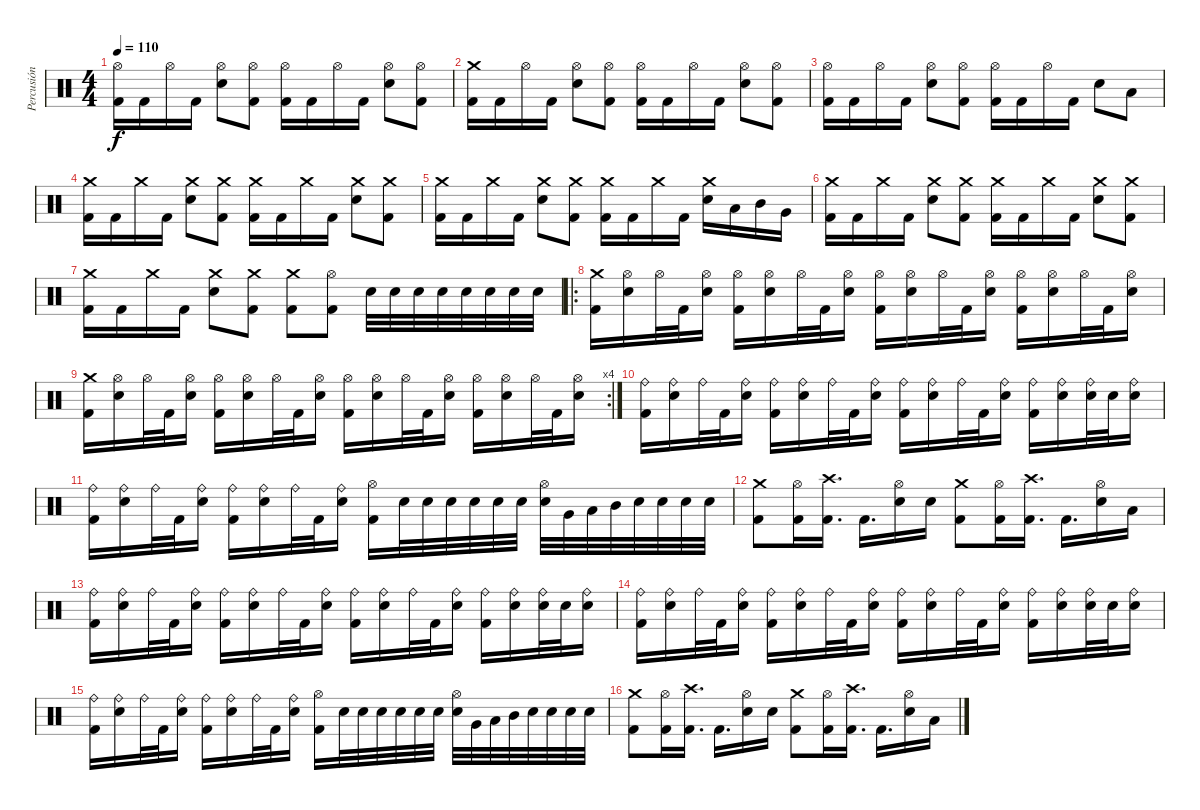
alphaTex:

\track ("Percusión" "Percusión") {instrument percussion}
\staff {score}
\articulation defaults
\ts (4 4)
\tempo 110
\clef neutral
\ks c
("Hi-Hat (open)" "Kick (hit) 2").16{dy f} "Kick (hit) 2".16 "Hi-Hat (open)".16 "Kick (hit) 2".16 ("Hi-Hat (open)" "Electric Snare (hit)").8 ("Hi-Hat (open)" "Kick (hit) 2").8 ("Hi-Hat (open)" "Kick (hit) 2").16 "Kick (hit) 2".16 "Hi-Hat (open)".16 "Kick (hit) 2".16 ("Hi-Hat (open)" "Electric Snare (hit)").8 ("Hi-Hat (open)" "Kick (hit) 2").8 |
("Crash medium (hit)" "Kick (hit) 2").16 "Kick (hit) 2".16 "Hi-Hat (open)".16 "Kick (hit) 2".16 ("Hi-Hat (open)" "Electric Snare (hit)").8 ("Hi-Hat (open)" "Kick (hit) 2").8 ("Hi-Hat (open)" "Kick (hit) 2").16 "Kick (hit) 2".16 "Hi-Hat (open)".16 "Kick (hit) 2".16 ("Hi-Hat (open)" "Electric Snare (hit)").8 ("Hi-Hat (open)" "Kick (hit) 2").8 |
("Hi-Hat (open)" "Kick (hit) 2").16 "Kick (hit) 2".16 "Hi-Hat (open)".16 "Kick (hit) 2".16 ("Hi-Hat (open)" "Electric Snare (hit)").8 ("Hi-Hat (open)" "Kick (hit) 2").8 ("Hi-Hat (open)" "Kick (hit) 2").16 "Kick (hit) 2".16 "Hi-Hat (open)".16 "Kick (hit) 2".16 "Electric Snare (hit)".8 "Low Tom (hit)".8 |
("Crash medium (hit)" "Kick (hit) 2").16 "Kick (hit) 2".16 "Crash medium (hit)".16 "Kick (hit) 2".16 ("Crash medium (hit)" "Electric Snare (hit)").8 ("Crash medium (hit)" "Kick (hit) 2").8 ("Crash medium (hit)" "Kick (hit) 2").16 "Kick (hit) 2".16 "Crash medium (hit)".16 "Kick (hit) 2".16 ("Crash medium (hit)" "Electric Snare (hit)").8 ("Crash medium (hit)" "Kick (hit) 2").8 |
("Crash medium (hit)" "Kick (hit) 2").16 "Kick (hit) 2".16 "Crash medium (hit)".16 "Kick (hit) 2".16 ("Crash medium (hit)" "Electric Snare (hit)").8 ("Crash medium (hit)" "Kick (hit) 2").8 ("Crash medium (hit)" "Kick (hit) 2").16 "Kick (hit) 2".16 "Crash medium (hit)".16 "Kick (hit) 2".16 ("Crash medium (hit)" "Electric Snare (hit)").16 "Low Tom (hit)".16 "Mid Tom (hit)".16 "Very Low Tom (hit)".16 |
("Crash medium (hit)" "Kick (hit) 2").16 "Kick (hit) 2".16 "Crash medium (hit)".16 "Kick (hit) 2".16 ("Crash medium (hit)" "Electric Snare (hit)").8 ("Crash medium (hit)" "Kick (hit) 2").8 ("Crash medium (hit)" "Kick (hit) 2").16 "Kick (hit) 2".16 "Crash medium (hit)".16 "Kick (hit) 2".16 ("Crash medium (hit)" "Electric Snare (hit)").8 ("Crash medium (hit)" "Kick (hit) 2").8 |
("Crash medium (hit)" "Kick (hit) 2").16 "Kick (hit) 2".16 "Crash medium (hit)".16 "Kick (hit) 2".16 ("Crash medium (hit)" "Electric Snare (hit)").8 ("Crash medium (hit)" "Kick (hit) 2").8 ("Crash medium (hit)" "Kick (hit) 2").8 ("Hi-Hat (open)" "Kick (hit) 2").8 "Electric Snare (hit)".32 "Electric Snare (hit)".32 "Electric Snare (hit)".32 "Electric Snare (hit)".32 "Electric Snare (hit)".32 "Electric Snare (hit)".32 "Electric Snare (hit)".32 "Electric Snare (hit)".32 |
\ro
("Crash medium (hit)" "Kick (hit) 2").16 ("Hi-Hat (open)" "Electric Snare (hit)").16 "Hi-Hat (open)".32 "Kick (hit) 2".32 ("Hi-Hat (open)" "Electric Snare (hit)").16 ("Hi-Hat (open)" "Kick (hit) 2").16 ("Hi-Hat (open)" "Electric Snare (hit)").16 "Hi-Hat (open)".32 "Kick (hit) 2".32 ("Hi-Hat (open)" "Electric Snare (hit)").16 ("Hi-Hat (open)" "Kick (hit) 2").16 ("Hi-Hat (open)" "Electric Snare (hit)").16 "Hi-Hat (open)".32 "Kick (hit) 2".32 ("Hi-Hat (open)" "Electric Snare (hit)").16 ("Hi-Hat (open)" "Kick (hit) 2").16 ("Hi-Hat (open)" "Electric Snare (hit)").16 "Hi-Hat (open)".32 "Kick (hit) 2".32 ("Hi-Hat (open)" "Electric Snare (hit)").16 |
\rc 4
("Crash medium (hit)" "Kick (hit) 2").16 ("Hi-Hat (open)" "Electric Snare (hit)").16 "Hi-Hat (open)".32 "Kick (hit) 2".32 ("Hi-Hat (open)" "Electric Snare (hit)").16 ("Hi-Hat (open)" "Kick (hit) 2").16 ("Hi-Hat (open)" "Electric Snare (hit)").16 "Hi-Hat (open)".32 "Kick (hit) 2".32 ("Hi-Hat (open)" "Electric Snare (hit)").16 ("Hi-Hat (open)" "Kick (hit) 2").16 ("Hi-Hat (open)" "Electric Snare (hit)").16 "Hi-Hat (open)".32 "Kick (hit) 2".32 ("Hi-Hat (open)" "Electric Snare (hit)").16 ("Hi-Hat (open)" "Kick (hit) 2").16 ("Hi-Hat (open)" "Electric Snare (hit)").16 "Hi-Hat (open)".32 "Kick (hit) 2".32 ("Hi-Hat (open)" "Electric Snare (hit)").16 |
("Ride (bell)" "Kick (hit) 2").16 ("Ride (bell)" "Electric Snare (hit)").16 "Ride (bell)".32 "Kick (hit) 2".32 ("Ride (bell)" "Electric Snare (hit)").16 ("Ride (bell)" "Kick (hit) 2").16 ("Ride (bell)" "Electric Snare (hit)").16 "Ride (bell)".32 "Kick (hit) 2".32 ("Ride (bell)" "Electric Snare (hit)").16 ("Ride (bell)" "Kick (hit) 2").16 ("Ride (bell)" "Electric Snare (hit)").16 "Ride (bell)".32 "Kick (hit) 2".32 ("Ride (bell)" "Electric Snare (hit)").16 ("Ride (bell)" "Kick (hit) 2").16 ("Ride (bell)" "Electric Snare (hit)").16 ("Ride (bell)" "Electric Snare (hit)").32 "Electric Snare (hit)".32 ("Ride (bell)" "Electric Snare (hit)").16 |
("Ride (bell)" "Kick (hit) 2").16 ("Ride (bell)" "Electric Snare (hit)").16 "Ride (bell)".32 "Kick (hit) 2".32 ("Ride (bell)" "Electric Snare (hit)").16 ("Ride (bell)" "Kick (hit) 2").16 ("Ride (bell)" "Electric Snare (hit)").16 "Ride (bell)".32 "Kick (hit) 2".32 ("Ride (bell)" "Electric Snare (hit)").16 ("Hi-Hat (open)" "Kick (hit) 2").16 "Electric Snare (hit)".32 "Electric Snare (hit)".32 "Electric Snare (hit)".32 "Electric Snare (hit)".32 "Electric Snare (hit)".32 "Electric Snare (hit)".32 ("Hi-Hat (open)" "Electric Snare (hit)").32 "Very Low Tom (hit)".32 "Low Tom (hit)".32 "Mid Tom (hit)".32 "Electric Snare (hit)".32 "Electric Snare (hit)".32 "Electric Snare (hit)".32 "Electric Snare (hit)".32 |
("Crash medium (hit)" "Kick (hit) 2").8 ("Hi-Hat (open)" "Kick (hit) 2").16 ("Crash high (hit)" "Kick (hit) 2").16{d} "Kick (hit) 2".16{d} ("Hi-Hat (open)" "Electric Snare (hit)").16 "Electric Snare (hit)".16 ("Crash medium (hit)" "Kick (hit) 2").8 ("Hi-Hat (open)" "Kick (hit) 2").16 ("Crash high (hit)" "Kick (hit) 2").16{d} "Kick (hit) 2".16{d} ("Hi-Hat (open)" "Electric Snare (hit)").16 "Low Tom (hit)".16 |
("Ride (bell)" "Kick (hit) 2").16 ("Ride (bell)" "Electric Snare (hit)").16 "Ride (bell)".32 "Kick (hit) 2".32 ("Ride (bell)" "Electric Snare (hit)").16 ("Ride (bell)" "Kick (hit) 2").16 ("Ride (bell)" "Electric Snare (hit)").16 "Ride (bell)".32 "Kick (hit) 2".32 ("Ride (bell)" "Electric Snare (hit)").16 ("Ride (bell)" "Kick (hit) 2").16 ("Ride (bell)" "Electric Snare (hit)").16 "Ride (bell)".32 "Kick (hit) 2".32 ("Ride (bell)" "Electric Snare (hit)").16 ("Ride (bell)" "Kick (hit) 2").16 ("Ride (bell)" "Electric Snare (hit)").16 ("Ride (bell)" "Electric Snare (hit)").32 "Electric Snare (hit)".32 ("Ride (bell)" "Electric Snare (hit)").16 |
("Ride (bell)" "Kick (hit) 2").16 ("Ride (bell)" "Electric Snare (hit)").16 "Ride (bell)".32 "Kick (hit) 2".32 ("Ride (bell)" "Electric Snare (hit)").16 ("Ride (bell)" "Kick (hit) 2").16 ("Ride (bell)" "Electric Snare (hit)").16 "Ride (bell)".32 "Kick (hit) 2".32 ("Ride (bell)" "Electric Snare (hit)").16 ("Ride (bell)" "Kick (hit) 2").16 ("Ride (bell)" "Electric Snare (hit)").16 "Ride (bell)".32 "Kick (hit) 2".32 ("Ride (bell)" "Electric Snare (hit)").16 ("Ride (bell)" "Kick (hit) 2").16 ("Ride (bell)" "Electric Snare (hit)").16 ("Ride (bell)" "Electric Snare (hit)").32 "Electric Snare (hit)".32 ("Ride (bell)" "Electric Snare (hit)").16 |
("Ride (bell)" "Kick (hit) 2").16 ("Ride (bell)" "Electric Snare (hit)").16 "Ride (bell)".32 "Kick (hit) 2".32 ("Ride (bell)" "Electric Snare (hit)").16 ("Ride (bell)" "Kick (hit) 2").16 ("Ride (bell)" "Electric Snare (hit)").16 "Ride (bell)".32 "Kick (hit) 2".32 ("Ride (bell)" "Electric Snare (hit)").16 ("Hi-Hat (open)" "Kick (hit) 2").16 "Electric Snare (hit)".32 "Electric Snare (hit)".32 "Electric Snare (hit)".32 "Electric Snare (hit)".32 "Electric Snare (hit)".32 "Electric Snare (hit)".32 ("Hi-Hat (open)" "Electric Snare (hit)").32 "Very Low Tom (hit)".32 "Low Tom (hit)".32 "Mid Tom (hit)".32 "Electric Snare (hit)".32 "Electric Snare (hit)".32 "Electric Snare (hit)".32 "Electric Snare (hit)".32 |
("Crash medium (hit)" "Kick (hit) 2").8 ("Hi-Hat (open)" "Kick (hit) 2").16 ("Crash high (hit)" "Kick (hit) 2").16{d} "Kick (hit) 2".16{d} ("Hi-Hat (open)" "Electric Snare (hit)").16 "Electric Snare (hit)".16 ("Crash medium (hit)" "Kick (hit) 2").8 ("Hi-Hat (open)" "Kick (hit) 2").16 ("Crash high (hit)" "Kick (hit) 2").16{d} "Kick (hit) 2".16{d} ("Hi-Hat (open)" "Electric Snare (hit)").16 "Low Tom (hit)".16
